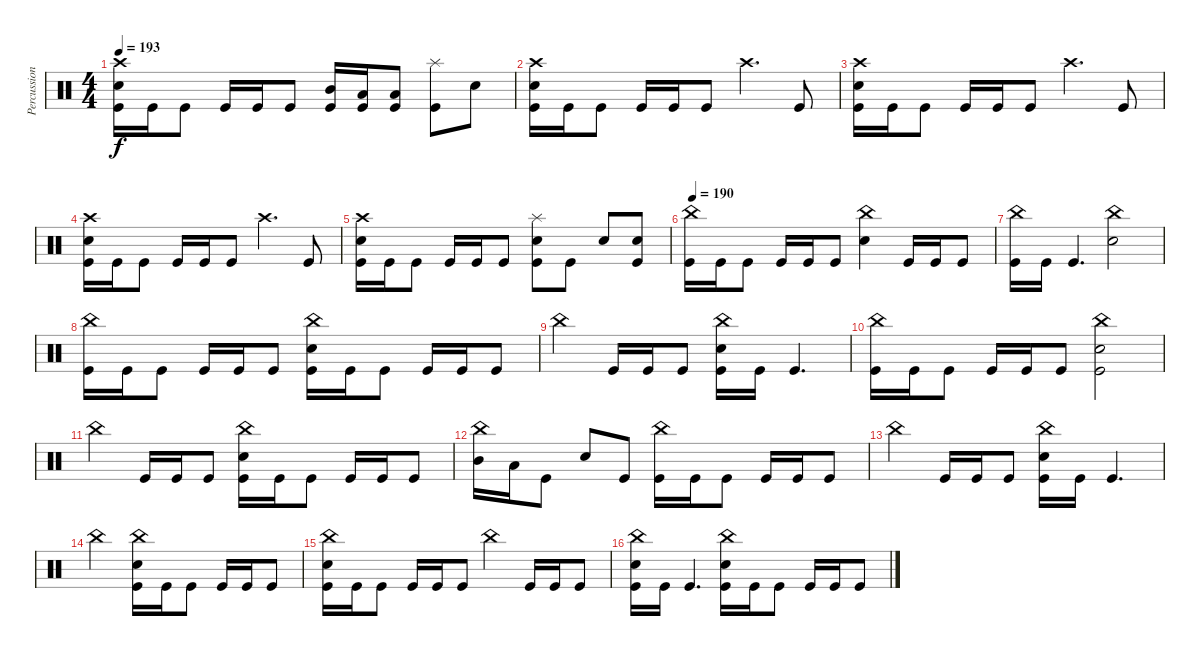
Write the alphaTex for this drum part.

\track ("Percussion" "Percussion") {instrument percussion}
\staff {score}
\articulation defaults
\ts (4 4)
\tempo 193
\clef neutral
\ks c
("Crash high (hit)" "Snare (hit) 2" "Kick (hit)").16{dy f} "Kick (hit)".16 "Kick (hit)".8 "Kick (hit)".16 "Kick (hit)".16 "Kick (hit)".8 ("Mid Tom (hit)" "Kick (hit)").16 ("Low Tom (hit)" "Kick (hit)").16 ("Low Tom (hit)" "Kick (hit)").8 ("Splash (hit)" "Kick (hit)").8 "Snare (hit) 2".8 |
("Crash high (hit)" "Snare (hit) 2" "Kick (hit)").16 "Kick (hit)".16 "Kick (hit)".8 "Kick (hit)".16 "Kick (hit)".16 "Kick (hit)".8 "Crash high (hit)".4{d} "Kick (hit)".8 |
("Crash high (hit)" "Snare (hit) 2" "Kick (hit)").16 "Kick (hit)".16 "Kick (hit)".8 "Kick (hit)".16 "Kick (hit)".16 "Kick (hit)".8 "Crash high (hit)".4{d} "Kick (hit)".8 |
("Crash high (hit)" "Snare (hit) 2" "Kick (hit)").16 "Kick (hit)".16 "Kick (hit)".8 "Kick (hit)".16 "Kick (hit)".16 "Kick (hit)".8 "Crash high (hit)".4{d} "Kick (hit)".8 |
("Crash high (hit)" "Snare (hit) 2" "Kick (hit)").16 "Kick (hit)".16 "Kick (hit)".8 "Kick (hit)".16 "Kick (hit)".16 "Kick (hit)".8 ("Splash (hit)" "Snare (hit) 2" "Kick (hit)").8 "Kick (hit)".8 "Snare (hit) 2".8 ("Snare (hit) 2" "Kick (hit)").8 |
\tempo 190
("China (hit)" "Kick (hit)").16 "Kick (hit)".16 "Kick (hit)".8 "Kick (hit)".16 "Kick (hit)".16 "Kick (hit)".8 ("China (hit)" "Snare (hit) 2").4 "Kick (hit)".16 "Kick (hit)".16 "Kick (hit)".8 |
("China (hit)" "Kick (hit)").16 "Kick (hit)".16 "Kick (hit)".4{d} ("China (hit)" "Snare (hit) 2").2 |
("China (hit)" "Kick (hit)").16 "Kick (hit)".16 "Kick (hit)".8 "Kick (hit)".16 "Kick (hit)".16 "Kick (hit)".8 ("China (hit)" "Snare (hit) 2" "Kick (hit)").16 "Kick (hit)".16 "Kick (hit)".8 "Kick (hit)".16 "Kick (hit)".16 "Kick (hit)".8 |
"China (hit)".4 "Kick (hit)".16 "Kick (hit)".16 "Kick (hit)".8 ("China (hit)" "Snare (hit) 2" "Kick (hit)").16 "Kick (hit)".16 "Kick (hit)".4{d} |
("China (hit)" "Kick (hit)").16 "Kick (hit)".16 "Kick (hit)".8 "Kick (hit)".16 "Kick (hit)".16 "Kick (hit)".8 ("China (hit)" "Snare (hit) 2" "Kick (hit)").2 |
"China (hit)".4 "Kick (hit)".16 "Kick (hit)".16 "Kick (hit)".8 ("China (hit)" "Snare (hit) 2" "Kick (hit)").16 "Kick (hit)".16 "Kick (hit)".8 "Kick (hit)".16 "Kick (hit)".16 "Kick (hit)".8 |
("China (hit)" "Mid Tom (hit)").16 "Low Tom (hit)".16 "Kick (hit)".8 "Snare (hit) 2".8 "Kick (hit)".8 ("China (hit)" "Kick (hit)").16 "Kick (hit)".16 "Kick (hit)".8 "Kick (hit)".16 "Kick (hit)".16 "Kick (hit)".8 |
"China (hit)".4 "Kick (hit)".16 "Kick (hit)".16 "Kick (hit)".8 ("China (hit)" "Snare (hit) 2" "Kick (hit)").16 "Kick (hit)".16 "Kick (hit)".4{d} |
"China (hit)".2 ("China (hit)" "Snare (hit) 2" "Kick (hit)").16 "Kick (hit)".16 "Kick (hit)".8 "Kick (hit)".16 "Kick (hit)".16 "Kick (hit)".8 |
("China (hit)" "Snare (hit) 2" "Kick (hit)").16 "Kick (hit)".16 "Kick (hit)".8 "Kick (hit)".16 "Kick (hit)".16 "Kick (hit)".8 "China (hit)".4 "Kick (hit)".16 "Kick (hit)".16 "Kick (hit)".8 |
("China (hit)" "Snare (hit) 2" "Kick (hit)").16 "Kick (hit)".16 "Kick (hit)".4{d} ("China (hit)" "Snare (hit) 2" "Kick (hit)").16 "Kick (hit)".16 "Kick (hit)".8 "Kick (hit)".16 "Kick (hit)".16 "Kick (hit)".8
